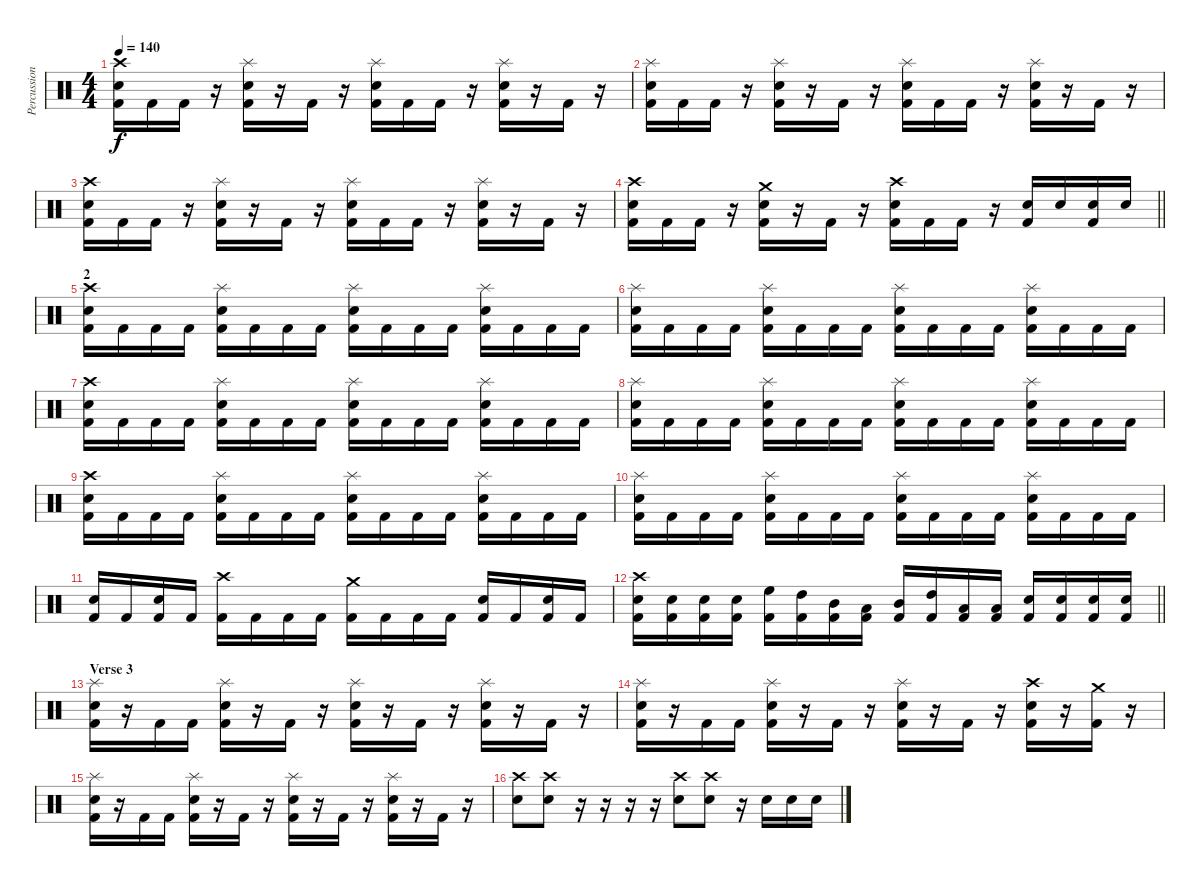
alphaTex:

\track ("Percussion" "Percussion") {instrument percussion}
\staff {score}
\articulation defaults
\ts (4 4)
\tempo 140
\clef neutral
\ks c
("Crash high (hit)" "Snare (hit) 2" "Kick (hit) 2").16{dy f} "Kick (hit) 2".16 "Kick (hit) 2".16 r.16 ("Splash (hit)" "Snare (hit) 2" "Kick (hit) 2").16 r.16 "Kick (hit) 2".16 r.16 ("Splash (hit)" "Snare (hit) 2" "Kick (hit) 2").16 "Kick (hit) 2".16 "Kick (hit) 2".16 r.16 ("Splash (hit)" "Snare (hit) 2" "Kick (hit) 2").16 r.16 "Kick (hit) 2".16 r.16 |
("Splash (hit)" "Snare (hit) 2" "Kick (hit) 2").16 "Kick (hit) 2".16 "Kick (hit) 2".16 r.16 ("Splash (hit)" "Snare (hit) 2" "Kick (hit) 2").16 r.16 "Kick (hit) 2".16 r.16 ("Splash (hit)" "Snare (hit) 2" "Kick (hit) 2").16 "Kick (hit) 2".16 "Kick (hit) 2".16 r.16 ("Splash (hit)" "Snare (hit) 2" "Kick (hit) 2").16 r.16 "Kick (hit) 2".16 r.16 |
("Crash high (hit)" "Snare (hit) 2" "Kick (hit) 2").16 "Kick (hit) 2".16 "Kick (hit) 2".16 r.16 ("Splash (hit)" "Snare (hit) 2" "Kick (hit) 2").16 r.16 "Kick (hit) 2".16 r.16 ("Splash (hit)" "Snare (hit) 2" "Kick (hit) 2").16 "Kick (hit) 2".16 "Kick (hit) 2".16 r.16 ("Splash (hit)" "Snare (hit) 2" "Kick (hit) 2").16 r.16 "Kick (hit) 2".16 r.16 |
\barLineRight lightlight
("Crash high (hit)" "Snare (hit) 2" "Kick (hit) 2").16 "Kick (hit) 2".16 "Kick (hit) 2".16 r.16 ("Crash medium (hit)" "Snare (hit) 2" "Kick (hit) 2").16 r.16 "Kick (hit) 2".16 r.16 ("Crash high (hit)" "Snare (hit) 2" "Kick (hit) 2").16 "Kick (hit) 2".16 "Kick (hit) 2".16 r.16 ("Snare (hit) 2" "Kick (hit) 2").16 "Snare (hit) 2".16 ("Snare (hit) 2" "Kick (hit) 2").16 "Snare (hit) 2".16 |
\section ("" "2")
("Crash high (hit)" "Snare (hit) 2" "Kick (hit) 2").16 "Kick (hit) 2".16 "Kick (hit) 2".16 "Kick (hit) 2".16 ("Splash (hit)" "Snare (hit) 2" "Kick (hit) 2").16 "Kick (hit) 2".16 "Kick (hit) 2".16 "Kick (hit) 2".16 ("Splash (hit)" "Snare (hit) 2" "Kick (hit) 2").16 "Kick (hit) 2".16 "Kick (hit) 2".16 "Kick (hit) 2".16 ("Splash (hit)" "Snare (hit) 2" "Kick (hit) 2").16 "Kick (hit) 2".16 "Kick (hit) 2".16 "Kick (hit) 2".16 |
("Splash (hit)" "Snare (hit) 2" "Kick (hit) 2").16 "Kick (hit) 2".16 "Kick (hit) 2".16 "Kick (hit) 2".16 ("Splash (hit)" "Snare (hit) 2" "Kick (hit) 2").16 "Kick (hit) 2".16 "Kick (hit) 2".16 "Kick (hit) 2".16 ("Splash (hit)" "Snare (hit) 2" "Kick (hit) 2").16 "Kick (hit) 2".16 "Kick (hit) 2".16 "Kick (hit) 2".16 ("Splash (hit)" "Snare (hit) 2" "Kick (hit) 2").16 "Kick (hit) 2".16 "Kick (hit) 2".16 "Kick (hit) 2".16 |
("Crash high (hit)" "Snare (hit) 2" "Kick (hit) 2").16 "Kick (hit) 2".16 "Kick (hit) 2".16 "Kick (hit) 2".16 ("Splash (hit)" "Snare (hit) 2" "Kick (hit) 2").16 "Kick (hit) 2".16 "Kick (hit) 2".16 "Kick (hit) 2".16 ("Splash (hit)" "Snare (hit) 2" "Kick (hit) 2").16 "Kick (hit) 2".16 "Kick (hit) 2".16 "Kick (hit) 2".16 ("Splash (hit)" "Snare (hit) 2" "Kick (hit) 2").16 "Kick (hit) 2".16 "Kick (hit) 2".16 "Kick (hit) 2".16 |
("Splash (hit)" "Snare (hit) 2" "Kick (hit) 2").16 "Kick (hit) 2".16 "Kick (hit) 2".16 "Kick (hit) 2".16 ("Splash (hit)" "Snare (hit) 2" "Kick (hit) 2").16 "Kick (hit) 2".16 "Kick (hit) 2".16 "Kick (hit) 2".16 ("Splash (hit)" "Snare (hit) 2" "Kick (hit) 2").16 "Kick (hit) 2".16 "Kick (hit) 2".16 "Kick (hit) 2".16 ("Splash (hit)" "Snare (hit) 2" "Kick (hit) 2").16 "Kick (hit) 2".16 "Kick (hit) 2".16 "Kick (hit) 2".16 |
("Crash high (hit)" "Snare (hit) 2" "Kick (hit) 2").16 "Kick (hit) 2".16 "Kick (hit) 2".16 "Kick (hit) 2".16 ("Splash (hit)" "Snare (hit) 2" "Kick (hit) 2").16 "Kick (hit) 2".16 "Kick (hit) 2".16 "Kick (hit) 2".16 ("Splash (hit)" "Snare (hit) 2" "Kick (hit) 2").16 "Kick (hit) 2".16 "Kick (hit) 2".16 "Kick (hit) 2".16 ("Splash (hit)" "Snare (hit) 2" "Kick (hit) 2").16 "Kick (hit) 2".16 "Kick (hit) 2".16 "Kick (hit) 2".16 |
("Splash (hit)" "Snare (hit) 2" "Kick (hit) 2").16 "Kick (hit) 2".16 "Kick (hit) 2".16 "Kick (hit) 2".16 ("Splash (hit)" "Snare (hit) 2" "Kick (hit) 2").16 "Kick (hit) 2".16 "Kick (hit) 2".16 "Kick (hit) 2".16 ("Splash (hit)" "Snare (hit) 2" "Kick (hit) 2").16 "Kick (hit) 2".16 "Kick (hit) 2".16 "Kick (hit) 2".16 ("Splash (hit)" "Snare (hit) 2" "Kick (hit) 2").16 "Kick (hit) 2".16 "Kick (hit) 2".16 "Kick (hit) 2".16 |
("Snare (hit) 2" "Kick (hit) 2").16 "Kick (hit) 2".16 ("Snare (hit) 2" "Kick (hit) 2").16 "Kick (hit) 2".16 ("Crash high (hit)" "Kick (hit) 2").16 "Kick (hit) 2".16 "Kick (hit) 2".16 "Kick (hit) 2".16 ("Crash medium (hit)" "Kick (hit) 2").16 "Kick (hit) 2".16 "Kick (hit) 2".16 "Kick (hit) 2".16 ("Snare (hit) 2" "Kick (hit) 2").16 "Kick (hit) 2".16 ("Snare (hit) 2" "Kick (hit) 2").16 "Kick (hit) 2".16 |
\barLineRight lightlight
("Crash high (hit)" "Snare (hit) 2" "Kick (hit) 2").16 ("Snare (hit) 2" "Kick (hit) 2").16 ("Snare (hit) 2" "Kick (hit) 2").16 ("Snare (hit) 2" "Kick (hit) 2").16 ("High Floor Tom (hit)" "Kick (hit) 2").16 ("High Tom (hit)" "Kick (hit) 2").16 ("Mid Tom (hit)" "Kick (hit) 2").16 ("Low Tom (hit)" "Kick (hit) 2").16 ("Mid Tom (hit)" "Kick (hit) 2").16 ("High Tom (hit)" "Kick (hit) 2").16 ("Low Tom (hit)" "Kick (hit) 2").16 ("Low Tom (hit)" "Kick (hit) 2").16 ("Snare (hit) 2" "Kick (hit) 2").16 ("Snare (hit) 2" "Kick (hit) 2").16 ("Snare (hit) 2" "Kick (hit) 2").16 ("Snare (hit) 2" "Kick (hit) 2").16 |
\section ("" "Verse 3")
("Splash (hit)" "Snare (hit) 2" "Kick (hit) 2").16 r.16 "Kick (hit) 2".16 "Kick (hit) 2".16 ("Splash (hit)" "Snare (hit) 2" "Kick (hit) 2").16 r.16 "Kick (hit) 2".16 r.16 ("Splash (hit)" "Snare (hit) 2" "Kick (hit) 2").16 r.16 "Kick (hit) 2".16 r.16 ("Splash (hit)" "Snare (hit) 2" "Kick (hit) 2").16 r.16 "Kick (hit) 2".16 r.16 |
("Splash (hit)" "Snare (hit) 2" "Kick (hit) 2").16 r.16 "Kick (hit) 2".16 "Kick (hit) 2".16 ("Splash (hit)" "Snare (hit) 2" "Kick (hit) 2").16 r.16 "Kick (hit) 2".16 r.16 ("Splash (hit)" "Snare (hit) 2" "Kick (hit) 2").16 r.16 "Kick (hit) 2".16 r.16 ("Crash high (hit)" "Snare (hit) 2" "Kick (hit) 2").16 r.16 ("Crash medium (hit)" "Kick (hit) 2").16 r.16 |
("Splash (hit)" "Snare (hit) 2" "Kick (hit) 2").16 r.16 "Kick (hit) 2".16 "Kick (hit) 2".16 ("Splash (hit)" "Snare (hit) 2" "Kick (hit) 2").16 r.16 "Kick (hit) 2".16 r.16 ("Splash (hit)" "Snare (hit) 2" "Kick (hit) 2").16 r.16 "Kick (hit) 2".16 r.16 ("Splash (hit)" "Snare (hit) 2" "Kick (hit) 2").16 r.16 "Kick (hit) 2".16 r.16 |
("Crash high (hit)" "Snare (hit) 2").8 ("Crash high (hit)" "Snare (hit) 2").8 r.16 r.16 r.16 r.16 ("Crash high (hit)" "Snare (hit) 2").8 ("Crash high (hit)" "Snare (hit) 2").8 r.16 "Snare (hit) 2".16 "Snare (hit) 2".16 "Snare (hit) 2".16
